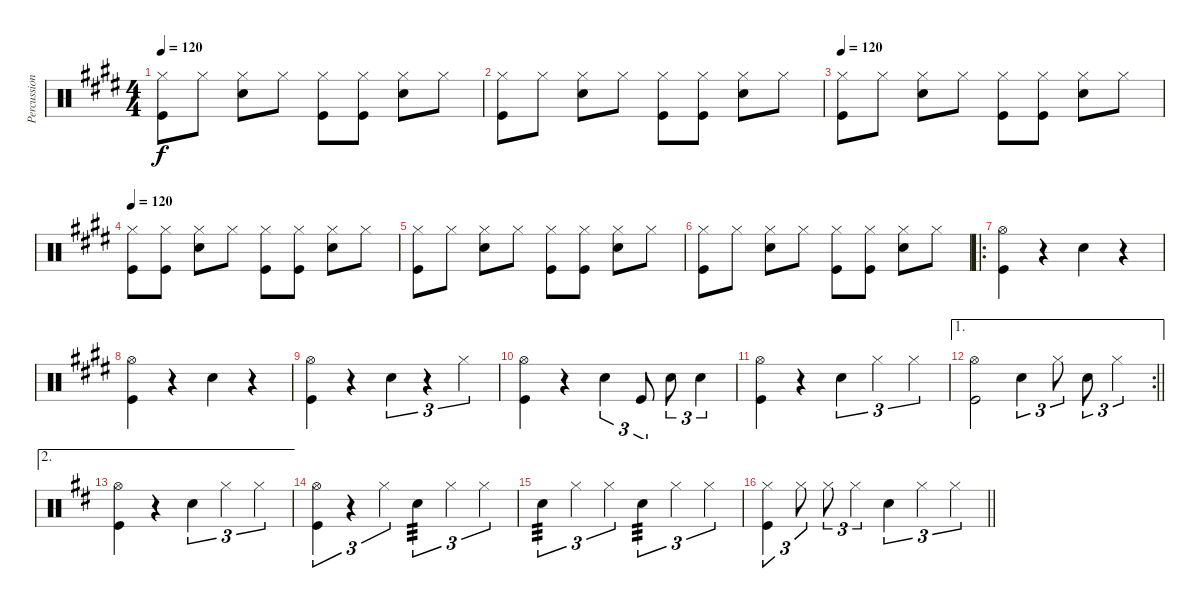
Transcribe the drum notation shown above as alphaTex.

\track ("Percussion" "Percussion") {instrument percussion}
\staff {score}
\articulation defaults
\ts (4 4)
\tempo 120
\clef neutral
\ks e
("Kick (hit)" "Hi-Hat (closed)").8{dy f} "Hi-Hat (closed)".8 ("Hi-Hat (closed)" "Snare (hit) 2").8 "Hi-Hat (closed)".8 ("Kick (hit)" "Hi-Hat (closed)").8 ("Hi-Hat (closed)" "Kick (hit)").8 ("Hi-Hat (closed)" "Snare (hit) 2").8 "Hi-Hat (closed)".8 |
("Kick (hit)" "Hi-Hat (closed)").8 "Hi-Hat (closed)".8 ("Hi-Hat (closed)" "Snare (hit) 2").8 "Hi-Hat (closed)".8 ("Kick (hit)" "Hi-Hat (closed)").8 ("Hi-Hat (closed)" "Kick (hit)").8 ("Hi-Hat (closed)" "Snare (hit) 2").8 "Hi-Hat (closed)".8 |
\tempo 120
("Kick (hit)" "Hi-Hat (closed)").8 "Hi-Hat (closed)".8 ("Hi-Hat (closed)" "Snare (hit) 2").8 "Hi-Hat (closed)".8 ("Kick (hit)" "Hi-Hat (closed)").8 ("Hi-Hat (closed)" "Kick (hit)").8 ("Hi-Hat (closed)" "Snare (hit) 2").8 "Hi-Hat (closed)".8 |
\tempo 120
("Kick (hit)" "Hi-Hat (closed)").8 ("Kick (hit)" "Hi-Hat (closed)").8 ("Hi-Hat (closed)" "Snare (hit) 2").8 "Hi-Hat (closed)".8 ("Kick (hit)" "Hi-Hat (closed)").8 ("Hi-Hat (closed)" "Kick (hit)").8 ("Hi-Hat (closed)" "Snare (hit) 2").8 "Hi-Hat (closed)".8 |
("Kick (hit)" "Hi-Hat (closed)").8 "Hi-Hat (closed)".8 ("Hi-Hat (closed)" "Snare (hit) 2").8 "Hi-Hat (closed)".8 ("Kick (hit)" "Hi-Hat (closed)").8 ("Hi-Hat (closed)" "Kick (hit)").8 ("Hi-Hat (closed)" "Snare (hit) 2").8 "Hi-Hat (closed)".8 |
("Kick (hit)" "Hi-Hat (closed)").8 "Hi-Hat (closed)".8 ("Hi-Hat (closed)" "Snare (hit) 2").8 "Hi-Hat (closed)".8 ("Kick (hit)" "Hi-Hat (closed)").8 ("Hi-Hat (closed)" "Kick (hit)").8 ("Hi-Hat (closed)" "Snare (hit) 2").8 "Hi-Hat (closed)".8 |
\ro
("Kick (hit)" "Hi-Hat (open)").4 r.4 "Snare (hit) 2".4 r.4 |
("Kick (hit)" "Hi-Hat (open)").4 r.4 "Snare (hit) 2".4 r.4 |
("Hi-Hat (open)" "Kick (hit)").4 r.4 "Snare (hit) 2".4{tu (3 2)} r.4{tu (3 2)} "Hi-Hat (closed)".4{tu (3 2)} |
("Kick (hit)" "Hi-Hat (open)").4 r.4 "Snare (hit) 2".4{tu (3 2)} "Kick (hit)".8{tu (3 2)} "Snare (hit) 2".8{tu (3 2)} "Snare (hit) 2".4{tu (3 2)} |
("Hi-Hat (open)" "Kick (hit)").4 r.4 "Snare (hit) 2".4{tu (3 2)} "Hi-Hat (closed)".4{tu (3 2)} "Hi-Hat (closed)".4{tu (3 2)} |
\ae 1
\rc 2
\barLineRight lightlight
("Hi-Hat (open)" "Kick (hit)").2 "Snare (hit) 2".4{tu (3 2)} "Hi-Hat (closed)".8{tu (3 2)} "Snare (hit) 2".8{tu (3 2)} "Hi-Hat (closed)".4{tu (3 2)} |
\ae 2
\ks d
("Hi-Hat (open)" "Kick (hit)").4 r.4 "Snare (hit) 2".4{tu (3 2)} "Hi-Hat (closed)".4{tu (3 2)} "Hi-Hat (closed)".4{tu (3 2)} |
("Kick (hit)" "Hi-Hat (open)").4{tu (3 2)} r.4{tu (3 2)} "Hi-Hat (closed)".4{tu (3 2)} "Snare (hit) 2".4{tu (3 2) tp 3} "Hi-Hat (closed)".4{tu (3 2)} "Hi-Hat (closed)".4{tu (3 2)} |
"Snare (hit) 2".4{tu (3 2) tp 3} "Hi-Hat (closed)".4{tu (3 2)} "Hi-Hat (closed)".4{tu (3 2)} "Snare (hit) 2".4{tu (3 2) tp 3} "Hi-Hat (closed)".4{tu (3 2)} "Hi-Hat (closed)".4{tu (3 2)} |
\barLineRight lightlight
("Hi-Hat (closed)" "Kick (hit)").4{tu (3 2)} "Hi-Hat (closed)".8{tu (3 2)} "Hi-Hat (closed)".8{tu (3 2)} "Hi-Hat (closed)".4{tu (3 2)} "Snare (hit) 2".4{tu (3 2)} "Hi-Hat (closed)".4{tu (3 2)} "Hi-Hat (closed)".4{tu (3 2)}
